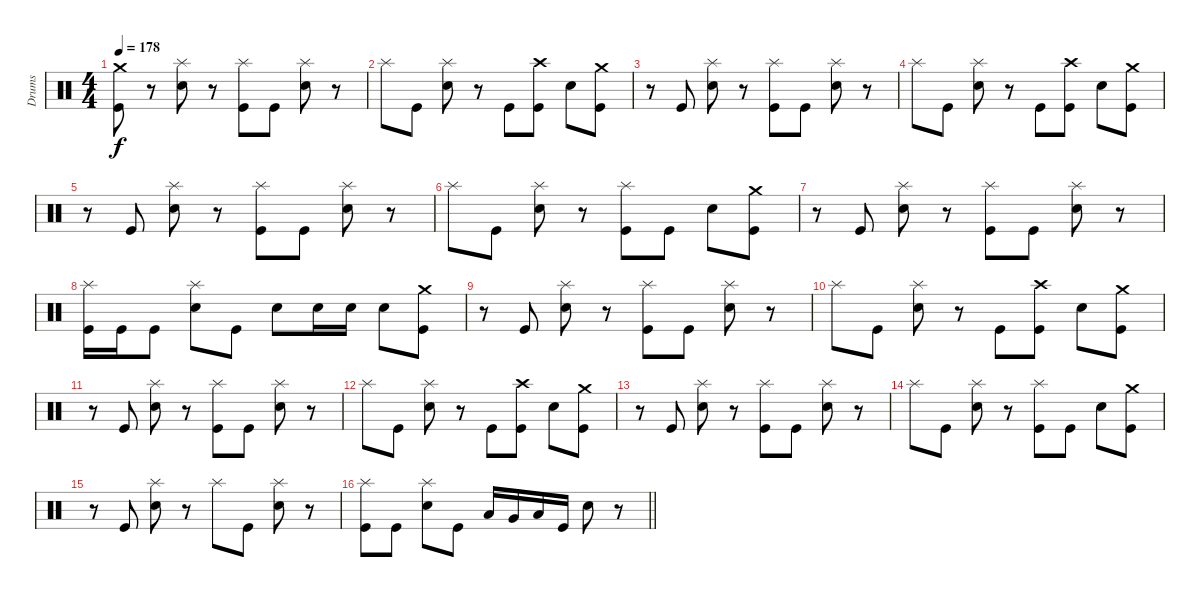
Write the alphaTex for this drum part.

\track ("Drums" "Drums") {instrument percussion}
\staff {score}
\articulation defaults
\ts (4 4)
\tempo 178
\clef neutral
\ks c
("Crash medium (hit)" "Kick (hit)").8{dy f} r.8 ("Splash (hit)" "Electric Snare (hit)").8 r.8 ("Splash (hit)" "Kick (hit)").8 "Kick (hit)".8 ("Splash (hit)" "Electric Snare (hit)").8 r.8 |
"Splash (hit)".8 "Kick (hit)".8 ("Splash (hit)" "Electric Snare (hit)").8 r.8 "Kick (hit)".8 ("Crash high (hit)" "Kick (hit)").8 "Electric Snare (hit)".8 ("Crash medium (hit)" "Kick (hit)").8 |
r.8 "Kick (hit)".8 ("Splash (hit)" "Electric Snare (hit)").8 r.8 ("Splash (hit)" "Kick (hit)").8 "Kick (hit)".8 ("Splash (hit)" "Electric Snare (hit)").8 r.8 |
"Splash (hit)".8 "Kick (hit)".8 ("Splash (hit)" "Electric Snare (hit)").8 r.8 "Kick (hit)".8 ("Crash high (hit)" "Kick (hit)").8 "Electric Snare (hit)".8 ("Crash medium (hit)" "Kick (hit)").8 |
r.8 "Kick (hit)".8 ("Splash (hit)" "Electric Snare (hit)").8 r.8 ("Splash (hit)" "Kick (hit)").8 "Kick (hit)".8 ("Splash (hit)" "Electric Snare (hit)").8 r.8 |
"Splash (hit)".8 "Kick (hit)".8 ("Splash (hit)" "Electric Snare (hit)").8 r.8 ("Splash (hit)" "Kick (hit)").8 "Kick (hit)".8 "Electric Snare (hit)".8 ("Crash medium (hit)" "Kick (hit)").8 |
r.8 "Kick (hit)".8 ("Splash (hit)" "Electric Snare (hit)").8 r.8 ("Splash (hit)" "Kick (hit)").8 "Kick (hit)".8 ("Splash (hit)" "Electric Snare (hit)").8 r.8 |
("Splash (hit)" "Kick (hit)").16 "Kick (hit)".16 "Kick (hit)".8 ("Splash (hit)" "Electric Snare (hit)").8 "Kick (hit)".8 "Electric Snare (hit)".8 "Electric Snare (hit)".16 "Electric Snare (hit)".16 "Electric Snare (hit)".8 ("Crash medium (hit)" "Kick (hit)").8 |
r.8 "Kick (hit)".8 ("Splash (hit)" "Electric Snare (hit)").8 r.8 ("Splash (hit)" "Kick (hit)").8 "Kick (hit)".8 ("Splash (hit)" "Electric Snare (hit)").8 r.8 |
"Splash (hit)".8 "Kick (hit)".8 ("Splash (hit)" "Electric Snare (hit)").8 r.8 "Kick (hit)".8 ("Crash high (hit)" "Kick (hit)").8 "Electric Snare (hit)".8 ("Crash medium (hit)" "Kick (hit)").8 |
r.8 "Kick (hit)".8 ("Splash (hit)" "Electric Snare (hit)").8 r.8 ("Splash (hit)" "Kick (hit)").8 "Kick (hit)".8 ("Splash (hit)" "Electric Snare (hit)").8 r.8 |
"Splash (hit)".8 "Kick (hit)".8 ("Splash (hit)" "Electric Snare (hit)").8 r.8 "Kick (hit)".8 ("Crash high (hit)" "Kick (hit)").8 "Electric Snare (hit)".8 ("Crash medium (hit)" "Kick (hit)").8 |
r.8 "Kick (hit)".8 ("Splash (hit)" "Electric Snare (hit)").8 r.8 ("Splash (hit)" "Kick (hit)").8 "Kick (hit)".8 ("Splash (hit)" "Electric Snare (hit)").8 r.8 |
"Splash (hit)".8 "Kick (hit)".8 ("Splash (hit)" "Electric Snare (hit)").8 r.8 ("Splash (hit)" "Kick (hit)").8 "Kick (hit)".8 "Electric Snare (hit)".8 ("Crash medium (hit)" "Kick (hit)").8 |
r.8 "Kick (hit)".8 ("Splash (hit)" "Electric Snare (hit)").8 r.8 "Splash (hit)".8 "Kick (hit)".8 ("Splash (hit)" "Electric Snare (hit)").8 r.8 |
\barLineRight lightlight
("Splash (hit)" "Kick (hit)").8 "Kick (hit)".8 ("Splash (hit)" "Electric Snare (hit)").8 "Kick (hit)".8 "Low Tom (hit)".16 "Very Low Tom (hit)".16 "Low Floor Tom (hit)".16 "Kick (hit)".16 "Electric Snare (hit)".8 r.8
